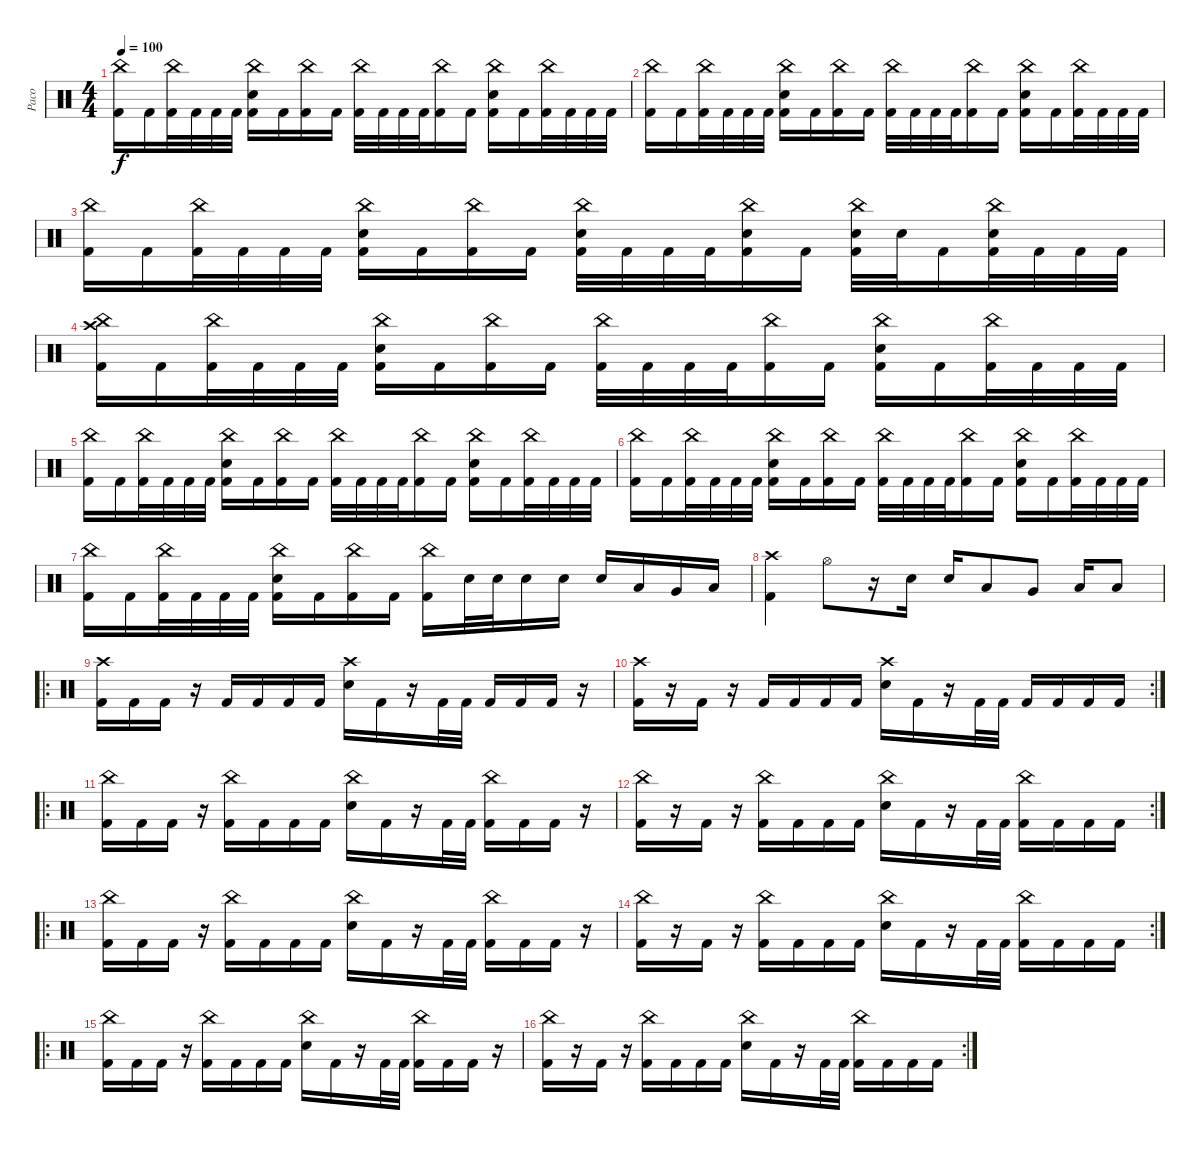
\track ("Paco" "Paco") {instrument percussion}
\staff {score}
\articulation defaults
\ts (4 4)
\tempo 100
\clef neutral
\ks c
("China (hit)" "Kick (hit) 2").16{dy f} "Kick (hit) 2".16 ("China (hit)" "Kick (hit) 2").32 "Kick (hit) 2".32 "Kick (hit) 2".32 "Kick (hit) 2".32 ("China (hit)" "Electric Snare (hit)" "Kick (hit) 2").16 "Kick (hit) 2".16 ("China (hit)" "Kick (hit) 2").16 "Kick (hit) 2".16 ("China (hit)" "Kick (hit) 2").32 "Kick (hit) 2".32 "Kick (hit) 2".32 "Kick (hit) 2".32 ("China (hit)" "Kick (hit) 2").16 "Kick (hit) 2".16 ("China (hit)" "Electric Snare (hit)" "Kick (hit) 2").16 "Kick (hit) 2".16 ("China (hit)" "Kick (hit) 2").32 "Kick (hit) 2".32 "Kick (hit) 2".32 "Kick (hit) 2".32 |
("China (hit)" "Kick (hit) 2").16 "Kick (hit) 2".16 ("China (hit)" "Kick (hit) 2").32 "Kick (hit) 2".32 "Kick (hit) 2".32 "Kick (hit) 2".32 ("China (hit)" "Electric Snare (hit)" "Kick (hit) 2").16 "Kick (hit) 2".16 ("China (hit)" "Kick (hit) 2").16 "Kick (hit) 2".16 ("China (hit)" "Kick (hit) 2").32 "Kick (hit) 2".32 "Kick (hit) 2".32 "Kick (hit) 2".32 ("China (hit)" "Kick (hit) 2").16 "Kick (hit) 2".16 ("China (hit)" "Electric Snare (hit)" "Kick (hit) 2").16 "Kick (hit) 2".16 ("China (hit)" "Kick (hit) 2").32 "Kick (hit) 2".32 "Kick (hit) 2".32 "Kick (hit) 2".32 |
("China (hit)" "Kick (hit) 2").16 "Kick (hit) 2".16 ("China (hit)" "Kick (hit) 2").32 "Kick (hit) 2".32 "Kick (hit) 2".32 "Kick (hit) 2".32 ("China (hit)" "Electric Snare (hit)" "Kick (hit) 2").16 "Kick (hit) 2".16 ("China (hit)" "Kick (hit) 2").16 "Kick (hit) 2".16 ("China (hit)" "Electric Snare (hit)" "Kick (hit) 2").32 "Kick (hit) 2".32 "Kick (hit) 2".32 "Kick (hit) 2".32 ("China (hit)" "Electric Snare (hit)" "Kick (hit) 2").16 "Kick (hit) 2".16 ("China (hit)" "Electric Snare (hit)" "Kick (hit) 2").32 "Electric Snare (hit)".32 "Kick (hit) 2".16 ("China (hit)" "Electric Snare (hit)" "Kick (hit) 2").32 "Kick (hit) 2".32 "Kick (hit) 2".32 "Kick (hit) 2".32 |
("China (hit)" "Crash high (hit)" "Kick (hit) 2").16 "Kick (hit) 2".16 ("China (hit)" "Kick (hit) 2").32 "Kick (hit) 2".32 "Kick (hit) 2".32 "Kick (hit) 2".32 ("China (hit)" "Electric Snare (hit)" "Kick (hit) 2").16 "Kick (hit) 2".16 ("China (hit)" "Kick (hit) 2").16 "Kick (hit) 2".16 ("China (hit)" "Kick (hit) 2").32 "Kick (hit) 2".32 "Kick (hit) 2".32 "Kick (hit) 2".32 ("China (hit)" "Kick (hit) 2").16 "Kick (hit) 2".16 ("China (hit)" "Electric Snare (hit)" "Kick (hit) 2").16 "Kick (hit) 2".16 ("China (hit)" "Kick (hit) 2").32 "Kick (hit) 2".32 "Kick (hit) 2".32 "Kick (hit) 2".32 |
("China (hit)" "Kick (hit) 2").16 "Kick (hit) 2".16 ("China (hit)" "Kick (hit) 2").32 "Kick (hit) 2".32 "Kick (hit) 2".32 "Kick (hit) 2".32 ("China (hit)" "Electric Snare (hit)" "Kick (hit) 2").16 "Kick (hit) 2".16 ("China (hit)" "Kick (hit) 2").16 "Kick (hit) 2".16 ("China (hit)" "Kick (hit) 2").32 "Kick (hit) 2".32 "Kick (hit) 2".32 "Kick (hit) 2".32 ("China (hit)" "Kick (hit) 2").16 "Kick (hit) 2".16 ("China (hit)" "Electric Snare (hit)" "Kick (hit) 2").16 "Kick (hit) 2".16 ("China (hit)" "Kick (hit) 2").32 "Kick (hit) 2".32 "Kick (hit) 2".32 "Kick (hit) 2".32 |
("China (hit)" "Kick (hit) 2").16 "Kick (hit) 2".16 ("China (hit)" "Kick (hit) 2").32 "Kick (hit) 2".32 "Kick (hit) 2".32 "Kick (hit) 2".32 ("China (hit)" "Electric Snare (hit)" "Kick (hit) 2").16 "Kick (hit) 2".16 ("China (hit)" "Kick (hit) 2").16 "Kick (hit) 2".16 ("China (hit)" "Kick (hit) 2").32 "Kick (hit) 2".32 "Kick (hit) 2".32 "Kick (hit) 2".32 ("China (hit)" "Kick (hit) 2").16 "Kick (hit) 2".16 ("China (hit)" "Electric Snare (hit)" "Kick (hit) 2").16 "Kick (hit) 2".16 ("China (hit)" "Kick (hit) 2").32 "Kick (hit) 2".32 "Kick (hit) 2".32 "Kick (hit) 2".32 |
("China (hit)" "Kick (hit) 2").16 "Kick (hit) 2".16 ("China (hit)" "Kick (hit) 2").32 "Kick (hit) 2".32 "Kick (hit) 2".32 "Kick (hit) 2".32 ("China (hit)" "Electric Snare (hit)" "Kick (hit) 2").16 "Kick (hit) 2".16 ("China (hit)" "Kick (hit) 2").16 "Kick (hit) 2".16 ("China (hit)" "Kick (hit) 2").16 "Electric Snare (hit)".32 "Electric Snare (hit)".32 "Electric Snare (hit)".16 "Electric Snare (hit)".16 "Electric Snare (hit)".16 "Low Tom (hit)".16 "Very Low Tom (hit)".16 "Low Floor Tom (hit)".16 |
("Crash high (hit)" "Kick (hit) 2").4 "Hi-Hat (open)".8 r.16 "Electric Snare (hit)".16 "Electric Snare (hit)".16 "Low Tom (hit)".8 "Very Low Tom (hit)".8 "Low Floor Tom (hit)".16 "Low Floor Tom (hit)".8 |
\ro
("Crash high (hit)" "Kick (hit) 2").16 "Kick (hit) 2".16 "Kick (hit) 2".16 r.16 "Kick (hit) 2".16 "Kick (hit) 2".16 "Kick (hit) 2".16 "Kick (hit) 2".16 ("Crash high (hit)" "Electric Snare (hit)").16 "Kick (hit) 2".16 r.16 "Kick (hit) 2".32 "Kick (hit) 2".32 "Kick (hit) 2".16 "Kick (hit) 2".16 "Kick (hit) 2".16 r.16 |
\rc 2
("Crash high (hit)" "Kick (hit) 2").16 r.16 "Kick (hit) 2".16 r.16 "Kick (hit) 2".16 "Kick (hit) 2".16 "Kick (hit) 2".16 "Kick (hit) 2".16 ("Crash high (hit)" "Electric Snare (hit)").16 "Kick (hit) 2".16 r.16 "Kick (hit) 2".32 "Kick (hit) 2".32 "Kick (hit) 2".16 "Kick (hit) 2".16 "Kick (hit) 2".16 "Kick (hit) 2".16 |
\ro
("China (hit)" "Kick (hit) 2").16 "Kick (hit) 2".16 "Kick (hit) 2".16 r.16 ("China (hit)" "Kick (hit) 2").16 "Kick (hit) 2".16 "Kick (hit) 2".16 "Kick (hit) 2".16 ("China (hit)" "Electric Snare (hit)").16 "Kick (hit) 2".16 r.16 "Kick (hit) 2".32 "Kick (hit) 2".32 ("China (hit)" "Kick (hit) 2").16 "Kick (hit) 2".16 "Kick (hit) 2".16 r.16 |
\rc 2
("China (hit)" "Kick (hit) 2").16 r.16 "Kick (hit) 2".16 r.16 ("China (hit)" "Kick (hit) 2").16 "Kick (hit) 2".16 "Kick (hit) 2".16 "Kick (hit) 2".16 ("China (hit)" "Electric Snare (hit)").16 "Kick (hit) 2".16 r.16 "Kick (hit) 2".32 "Kick (hit) 2".32 ("China (hit)" "Kick (hit) 2").16 "Kick (hit) 2".16 "Kick (hit) 2".16 "Kick (hit) 2".16 |
\ro
("China (hit)" "Kick (hit) 2").16 "Kick (hit) 2".16 "Kick (hit) 2".16 r.16 ("China (hit)" "Kick (hit) 2").16 "Kick (hit) 2".16 "Kick (hit) 2".16 "Kick (hit) 2".16 ("China (hit)" "Electric Snare (hit)").16 "Kick (hit) 2".16 r.16 "Kick (hit) 2".32 "Kick (hit) 2".32 ("China (hit)" "Kick (hit) 2").16 "Kick (hit) 2".16 "Kick (hit) 2".16 r.16 |
\rc 2
("China (hit)" "Kick (hit) 2").16 r.16 "Kick (hit) 2".16 r.16 ("China (hit)" "Kick (hit) 2").16 "Kick (hit) 2".16 "Kick (hit) 2".16 "Kick (hit) 2".16 ("China (hit)" "Electric Snare (hit)").16 "Kick (hit) 2".16 r.16 "Kick (hit) 2".32 "Kick (hit) 2".32 ("China (hit)" "Kick (hit) 2").16 "Kick (hit) 2".16 "Kick (hit) 2".16 "Kick (hit) 2".16 |
\ro
("China (hit)" "Kick (hit) 2").16 "Kick (hit) 2".16 "Kick (hit) 2".16 r.16 ("China (hit)" "Kick (hit) 2").16 "Kick (hit) 2".16 "Kick (hit) 2".16 "Kick (hit) 2".16 ("China (hit)" "Electric Snare (hit)").16 "Kick (hit) 2".16 r.16 "Kick (hit) 2".32 "Kick (hit) 2".32 ("China (hit)" "Kick (hit) 2").16 "Kick (hit) 2".16 "Kick (hit) 2".16 r.16 |
\rc 2
("China (hit)" "Kick (hit) 2").16 r.16 "Kick (hit) 2".16 r.16 ("China (hit)" "Kick (hit) 2").16 "Kick (hit) 2".16 "Kick (hit) 2".16 "Kick (hit) 2".16 ("China (hit)" "Electric Snare (hit)").16 "Kick (hit) 2".16 r.16 "Kick (hit) 2".32 "Kick (hit) 2".32 ("China (hit)" "Kick (hit) 2").16 "Kick (hit) 2".16 "Kick (hit) 2".16 "Kick (hit) 2".16
